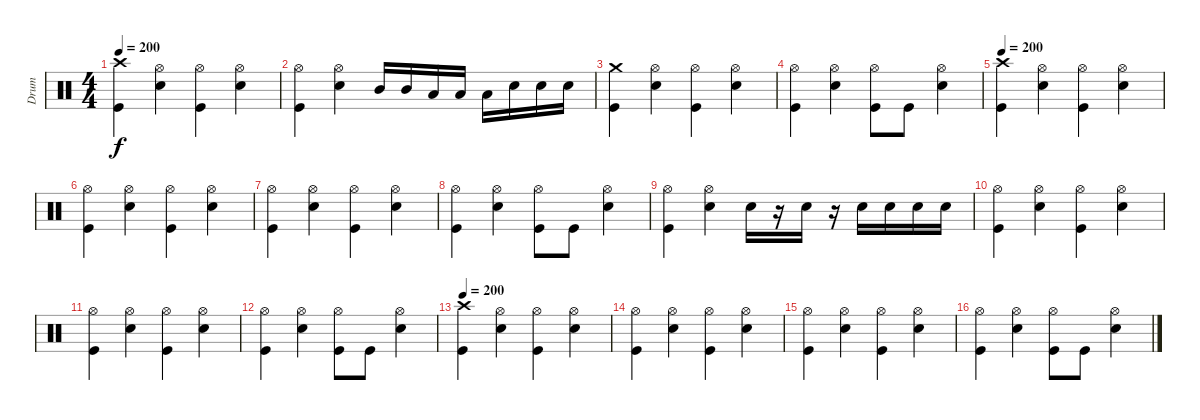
\track ("Drum" "Drum") {instrument percussion}
\staff {score}
\articulation defaults
\ts (4 4)
\tempo 200
\clef neutral
\ks c
("Crash high (hit)" "Kick (hit)").4{dy f} ("Hi-Hat (open)" "Electric Snare (hit)").4 ("Hi-Hat (open)" "Kick (hit)").4 ("Hi-Hat (open)" "Electric Snare (hit)").4 |
("Hi-Hat (open)" "Kick (hit)").4 ("Hi-Hat (open)" "Electric Snare (hit)").4 "Mid Tom (hit)".16 "Mid Tom (hit)".16 "Low Tom (hit)".16 "Low Tom (hit)".16 "Low Tom (hit)".16 "Electric Snare (hit)".16 "Electric Snare (hit)".16 "Electric Snare (hit)".16 |
("Crash medium (hit)" "Kick (hit)").4 ("Hi-Hat (open)" "Electric Snare (hit)").4 ("Hi-Hat (open)" "Kick (hit)").4 ("Hi-Hat (open)" "Electric Snare (hit)").4 |
("Hi-Hat (open)" "Kick (hit)").4 ("Hi-Hat (open)" "Electric Snare (hit)").4 ("Hi-Hat (open)" "Kick (hit)").8 "Kick (hit)".8 ("Hi-Hat (open)" "Electric Snare (hit)").4 |
\tempo 200
("Crash high (hit)" "Kick (hit)").4 ("Hi-Hat (open)" "Electric Snare (hit)").4 ("Hi-Hat (open)" "Kick (hit)").4 ("Hi-Hat (open)" "Electric Snare (hit)").4 |
("Hi-Hat (open)" "Kick (hit)").4 ("Hi-Hat (open)" "Electric Snare (hit)").4 ("Hi-Hat (open)" "Kick (hit)").4 ("Hi-Hat (open)" "Electric Snare (hit)").4 |
("Hi-Hat (open)" "Kick (hit)").4 ("Hi-Hat (open)" "Electric Snare (hit)").4 ("Hi-Hat (open)" "Kick (hit)").4 ("Hi-Hat (open)" "Electric Snare (hit)").4 |
("Hi-Hat (open)" "Kick (hit)").4 ("Hi-Hat (open)" "Electric Snare (hit)").4 ("Hi-Hat (open)" "Kick (hit)").8 "Kick (hit)".8 ("Hi-Hat (open)" "Electric Snare (hit)").4 |
("Hi-Hat (open)" "Kick (hit)").4 ("Hi-Hat (open)" "Electric Snare (hit)").4 "Electric Snare (hit)".16 r.16 "Electric Snare (hit)".16 r.16 "Electric Snare (hit)".16 "Electric Snare (hit)".16 "Electric Snare (hit)".16 "Electric Snare (hit)".16 |
("Hi-Hat (open)" "Kick (hit)").4 ("Hi-Hat (open)" "Electric Snare (hit)").4 ("Hi-Hat (open)" "Kick (hit)").4 ("Hi-Hat (open)" "Electric Snare (hit)").4 |
("Hi-Hat (open)" "Kick (hit)").4 ("Hi-Hat (open)" "Electric Snare (hit)").4 ("Hi-Hat (open)" "Kick (hit)").4 ("Hi-Hat (open)" "Electric Snare (hit)").4 |
("Hi-Hat (open)" "Kick (hit)").4 ("Hi-Hat (open)" "Electric Snare (hit)").4 ("Hi-Hat (open)" "Kick (hit)").8 "Kick (hit)".8 ("Hi-Hat (open)" "Electric Snare (hit)").4 |
\tempo 200
("Crash high (hit)" "Kick (hit)").4 ("Hi-Hat (open)" "Electric Snare (hit)").4 ("Hi-Hat (open)" "Kick (hit)").4 ("Hi-Hat (open)" "Electric Snare (hit)").4 |
("Hi-Hat (open)" "Kick (hit)").4 ("Hi-Hat (open)" "Electric Snare (hit)").4 ("Hi-Hat (open)" "Kick (hit)").4 ("Hi-Hat (open)" "Electric Snare (hit)").4 |
("Hi-Hat (open)" "Kick (hit)").4 ("Hi-Hat (open)" "Electric Snare (hit)").4 ("Hi-Hat (open)" "Kick (hit)").4 ("Hi-Hat (open)" "Electric Snare (hit)").4 |
("Hi-Hat (open)" "Kick (hit)").4 ("Hi-Hat (open)" "Electric Snare (hit)").4 ("Hi-Hat (open)" "Kick (hit)").8 "Kick (hit)".8 ("Hi-Hat (open)" "Electric Snare (hit)").4
